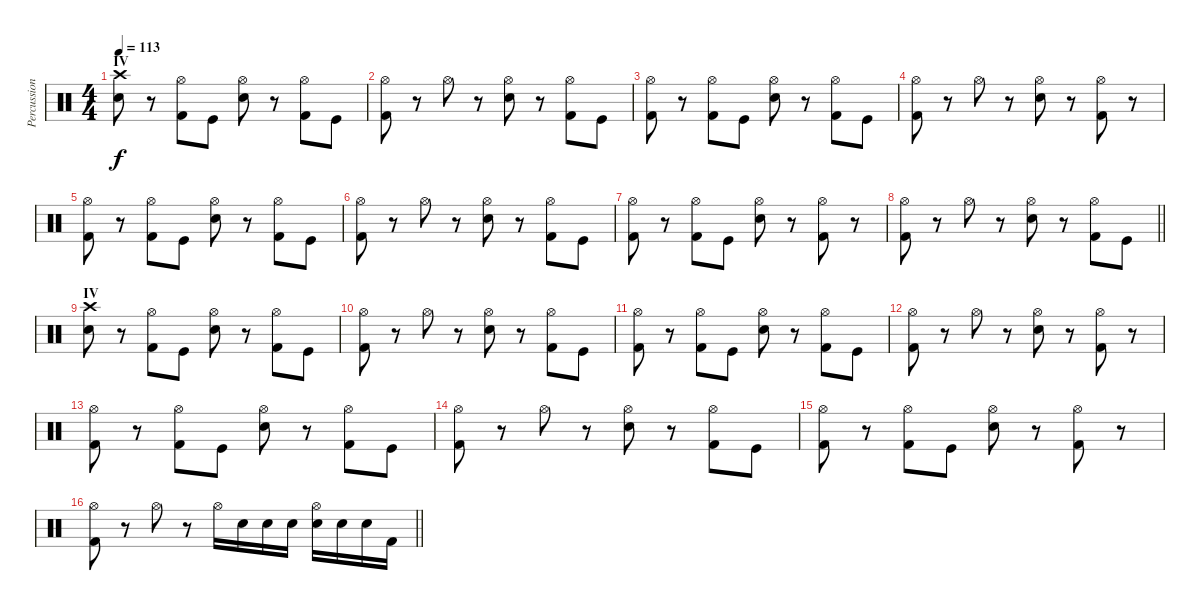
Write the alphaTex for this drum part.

\track ("Percussion" "Percussion") {instrument percussion}
\staff {score}
\articulation defaults
\ts (4 4)
\section ("" "IV")
\tempo 113
\clef neutral
\ks c
("Crash high (hit)" "Electric Snare (hit)").8{dy f} r.8 ("Kick (hit) 2" "Hi-Hat (open)").8 "Kick (hit)".8 ("Electric Snare (hit)" "Hi-Hat (open)").8 r.8 ("Kick (hit) 2" "Hi-Hat (open)").8 "Kick (hit)".8 |
("Kick (hit) 2" "Hi-Hat (open)").8 r.8 "Hi-Hat (open)".8 r.8 ("Electric Snare (hit)" "Hi-Hat (open)").8 r.8 ("Kick (hit) 2" "Hi-Hat (open)").8 "Kick (hit)".8 |
("Kick (hit) 2" "Hi-Hat (open)").8 r.8 ("Kick (hit) 2" "Hi-Hat (open)").8 "Kick (hit)".8 ("Electric Snare (hit)" "Hi-Hat (open)").8 r.8 ("Kick (hit) 2" "Hi-Hat (open)").8 "Kick (hit)".8 |
("Kick (hit) 2" "Hi-Hat (open)").8 r.8 "Hi-Hat (open)".8 r.8 ("Electric Snare (hit)" "Hi-Hat (open)").8 r.8 ("Kick (hit) 2" "Hi-Hat (open)").8 r.8 |
("Kick (hit) 2" "Hi-Hat (open)").8 r.8 ("Kick (hit) 2" "Hi-Hat (open)").8 "Kick (hit)".8 ("Electric Snare (hit)" "Hi-Hat (open)").8 r.8 ("Kick (hit) 2" "Hi-Hat (open)").8 "Kick (hit)".8 |
("Kick (hit) 2" "Hi-Hat (open)").8 r.8 "Hi-Hat (open)".8 r.8 ("Electric Snare (hit)" "Hi-Hat (open)").8 r.8 ("Kick (hit) 2" "Hi-Hat (open)").8 "Kick (hit)".8 |
("Kick (hit) 2" "Hi-Hat (open)").8 r.8 ("Kick (hit) 2" "Hi-Hat (open)").8 "Kick (hit)".8 ("Electric Snare (hit)" "Hi-Hat (open)").8 r.8 ("Kick (hit) 2" "Hi-Hat (open)").8 r.8 |
\barLineRight lightlight
("Kick (hit) 2" "Hi-Hat (open)").8 r.8 "Hi-Hat (open)".8 r.8 ("Electric Snare (hit)" "Hi-Hat (open)").8 r.8 ("Kick (hit) 2" "Hi-Hat (open)").8 "Kick (hit)".8 |
\section ("" "IV")
("Crash high (hit)" "Electric Snare (hit)").8 r.8 ("Kick (hit) 2" "Hi-Hat (open)").8 "Kick (hit)".8 ("Electric Snare (hit)" "Hi-Hat (open)").8 r.8 ("Kick (hit) 2" "Hi-Hat (open)").8 "Kick (hit)".8 |
("Kick (hit) 2" "Hi-Hat (open)").8 r.8 "Hi-Hat (open)".8 r.8 ("Electric Snare (hit)" "Hi-Hat (open)").8 r.8 ("Kick (hit) 2" "Hi-Hat (open)").8 "Kick (hit)".8 |
("Kick (hit) 2" "Hi-Hat (open)").8 r.8 ("Kick (hit) 2" "Hi-Hat (open)").8 "Kick (hit)".8 ("Electric Snare (hit)" "Hi-Hat (open)").8 r.8 ("Kick (hit) 2" "Hi-Hat (open)").8 "Kick (hit)".8 |
("Kick (hit) 2" "Hi-Hat (open)").8 r.8 "Hi-Hat (open)".8 r.8 ("Electric Snare (hit)" "Hi-Hat (open)").8 r.8 ("Kick (hit) 2" "Hi-Hat (open)").8 r.8 |
("Kick (hit) 2" "Hi-Hat (open)").8 r.8 ("Kick (hit) 2" "Hi-Hat (open)").8 "Kick (hit)".8 ("Electric Snare (hit)" "Hi-Hat (open)").8 r.8 ("Kick (hit) 2" "Hi-Hat (open)").8 "Kick (hit)".8 |
("Kick (hit) 2" "Hi-Hat (open)").8 r.8 "Hi-Hat (open)".8 r.8 ("Electric Snare (hit)" "Hi-Hat (open)").8 r.8 ("Kick (hit) 2" "Hi-Hat (open)").8 "Kick (hit)".8 |
("Kick (hit) 2" "Hi-Hat (open)").8 r.8 ("Kick (hit) 2" "Hi-Hat (open)").8 "Kick (hit)".8 ("Electric Snare (hit)" "Hi-Hat (open)").8 r.8 ("Kick (hit) 2" "Hi-Hat (open)").8 r.8 |
\barLineRight lightlight
("Kick (hit) 2" "Hi-Hat (open)").8 r.8 "Hi-Hat (open)".8 r.8 "Hi-Hat (open)".16 "Electric Snare (hit)".16 "Electric Snare (hit)".16 "Electric Snare (hit)".16 ("Electric Snare (hit)" "Hi-Hat (open)").16 "Electric Snare (hit)".16 "Electric Snare (hit)".16 "Kick (hit) 2".16
